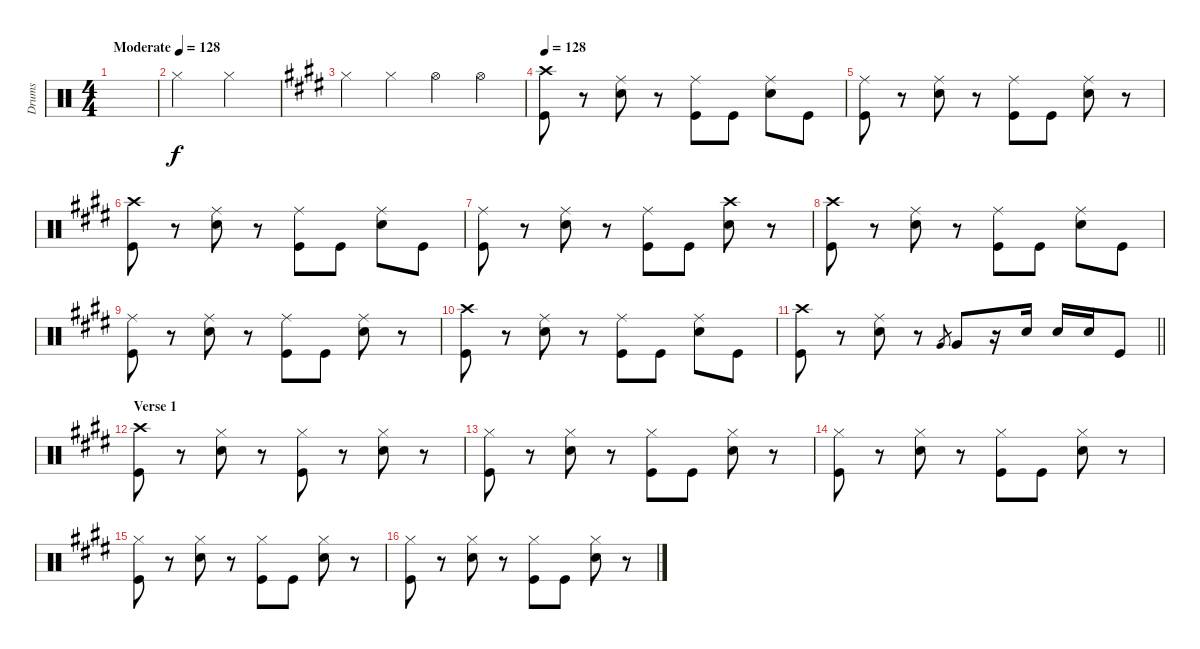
\track ("Drums" "Drums") {instrument percussion}
\staff {score}
\articulation defaults
\ts (4 4)
\tempo (128 "Moderate")
\clef neutral
\ks c
|
"Hi-Hat (closed)".2 "Hi-Hat (closed)".2 |
\ks e "Hi-Hat (closed)".4 "Hi-Hat (closed)".4 "Hi-Hat (open)".4 "Hi-Hat (open)".4
|
\tempo 128
("Crash high (hit)" "Kick (hit)").8 r.8 ("Ride (middle)" "Snare (hit) 2").8 r.8 ("Ride (middle)" "Kick (hit)").8 "Kick (hit)".8 ("Ride (middle)" "Snare (hit) 2").8 "Kick (hit)".8 |
("Ride (middle)" "Kick (hit)").8 r.8 ("Ride (middle)" "Snare (hit) 2").8 r.8 ("Ride (middle)" "Kick (hit)").8 "Kick (hit)".8 ("Ride (middle)" "Snare (hit) 2").8 r.8 |
("Crash high (hit)" "Kick (hit)").8 r.8 ("Ride (middle)" "Snare (hit) 2").8 r.8 ("Ride (middle)" "Kick (hit)").8 "Kick (hit)".8 ("Ride (middle)" "Snare (hit) 2").8 "Kick (hit)".8 |
("Ride (middle)" "Kick (hit)").8 r.8 ("Ride (middle)" "Snare (hit) 2").8 r.8 ("Ride (middle)" "Kick (hit)").8 "Kick (hit)".8 ("Crash high (hit)" "Snare (hit) 2").8 r.8 |
("Crash high (hit)" "Kick (hit)").8 r.8 ("Ride (middle)" "Snare (hit) 2").8 r.8 ("Ride (middle)" "Kick (hit)").8 "Kick (hit)".8 ("Ride (middle)" "Snare (hit) 2").8 "Kick (hit)".8 |
("Ride (middle)" "Kick (hit)").8 r.8 ("Ride (middle)" "Snare (hit) 2").8 r.8 ("Ride (middle)" "Kick (hit)").8 "Kick (hit)".8 ("Ride (middle)" "Snare (hit) 2").8 r.8 |
("Crash high (hit)" "Kick (hit)").8 r.8 ("Ride (middle)" "Snare (hit) 2").8 r.8 ("Ride (middle)" "Kick (hit)").8 "Kick (hit)".8 ("Ride (middle)" "Snare (hit) 2").8 "Kick (hit)".8 |
\barLineRight lightlight
("Crash high (hit)" "Kick (hit)").8 r.8 ("Ride (middle)" "Snare (hit) 2").8 r.8 "Very Low Tom (hit)".8{gr} "Very Low Tom (hit)".8 r.16 "Snare (hit) 2".16 "Snare (hit) 2".16 "Snare (hit) 2".16 "Kick (hit)".8 |
\section ("" "Verse 1")
("Crash high (hit)" "Kick (hit)").8 r.8 ("Hi-Hat (closed)" "Snare (hit) 2").8 r.8 ("Hi-Hat (closed)" "Kick (hit)").8 r.8 ("Hi-Hat (closed)" "Snare (hit) 2").8 r.8 |
("Hi-Hat (closed)" "Kick (hit)").8 r.8 ("Hi-Hat (closed)" "Snare (hit) 2").8 r.8 ("Hi-Hat (closed)" "Kick (hit)").8 "Kick (hit)".8 ("Hi-Hat (closed)" "Snare (hit) 2").8 r.8 |
("Hi-Hat (closed)" "Kick (hit)").8 r.8 ("Hi-Hat (closed)" "Snare (hit) 2").8 r.8 ("Hi-Hat (closed)" "Kick (hit)").8 "Kick (hit)".8 ("Hi-Hat (closed)" "Snare (hit) 2").8 r.8 |
("Hi-Hat (closed)" "Kick (hit)").8 r.8 ("Hi-Hat (closed)" "Snare (hit) 2").8 r.8 ("Hi-Hat (closed)" "Kick (hit)").8 "Kick (hit)".8 ("Hi-Hat (closed)" "Snare (hit) 2").8 r.8 |
("Hi-Hat (closed)" "Kick (hit)").8 r.8 ("Hi-Hat (closed)" "Snare (hit) 2").8 r.8 ("Hi-Hat (closed)" "Kick (hit)").8 "Kick (hit)".8 ("Hi-Hat (closed)" "Snare (hit) 2").8 r.8
